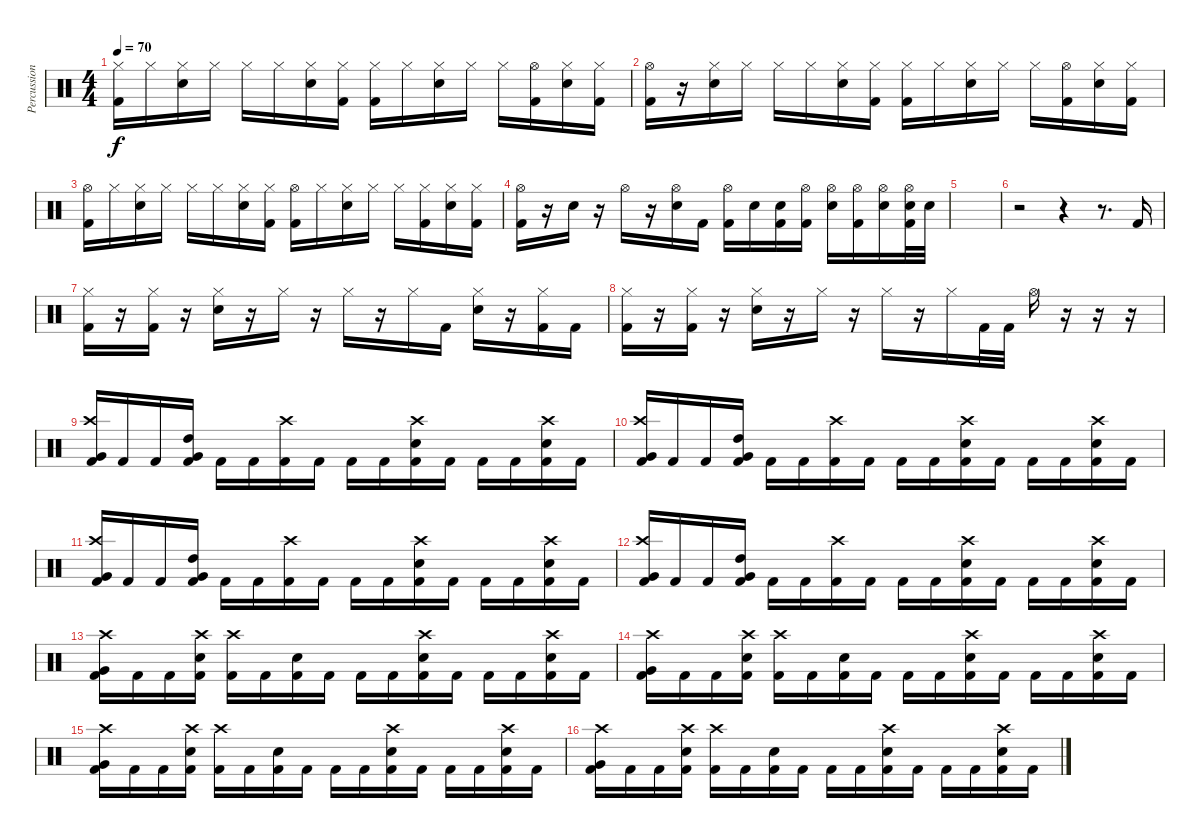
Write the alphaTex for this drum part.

\track ("Percussion" "Percussion") {instrument percussion}
\staff {score}
\articulation defaults
\ts (4 4)
\tempo 70
\clef neutral
\ks c
("Hi-Hat (closed)" "Kick (hit) 2").16{dy f} "Hi-Hat (closed)".16 ("Hi-Hat (closed)" "Snare (hit) 2").16 "Hi-Hat (closed)".16 "Hi-Hat (closed)".16 "Hi-Hat (closed)".16 ("Hi-Hat (closed)" "Snare (hit) 2").16 ("Hi-Hat (closed)" "Kick (hit) 2").16 ("Hi-Hat (closed)" "Kick (hit) 2").16 "Hi-Hat (closed)".16 ("Hi-Hat (closed)" "Snare (hit) 2").16 "Hi-Hat (closed)".16 "Hi-Hat (closed)".16 ("Hi-Hat (open)" "Kick (hit) 2").16 ("Hi-Hat (closed)" "Snare (hit) 2").16 ("Hi-Hat (closed)" "Kick (hit) 2").16 |
("Hi-Hat (open)" "Kick (hit) 2").16 r.16 ("Hi-Hat (closed)" "Snare (hit) 2").16 "Hi-Hat (closed)".16 "Hi-Hat (closed)".16 "Hi-Hat (closed)".16 ("Hi-Hat (closed)" "Snare (hit) 2").16 ("Hi-Hat (closed)" "Kick (hit) 2").16 ("Hi-Hat (closed)" "Kick (hit) 2").16 "Hi-Hat (closed)".16 ("Hi-Hat (closed)" "Snare (hit) 2").16 "Hi-Hat (closed)".16 "Hi-Hat (closed)".16 ("Hi-Hat (open)" "Kick (hit) 2").16 ("Hi-Hat (closed)" "Snare (hit) 2").16 ("Hi-Hat (closed)" "Kick (hit) 2").16 |
("Hi-Hat (open)" "Kick (hit) 2").16 "Hi-Hat (closed)".16 ("Hi-Hat (closed)" "Snare (hit) 2").16 "Hi-Hat (closed)".16 "Hi-Hat (closed)".16 "Hi-Hat (closed)".16 ("Hi-Hat (closed)" "Snare (hit) 2").16 ("Hi-Hat (closed)" "Kick (hit) 2").16 ("Hi-Hat (open)" "Kick (hit) 2").16 "Hi-Hat (closed)".16 ("Hi-Hat (closed)" "Snare (hit) 2").16 "Hi-Hat (closed)".16 "Hi-Hat (closed)".16 ("Hi-Hat (closed)" "Kick (hit) 2").16 ("Hi-Hat (closed)" "Snare (hit) 2").16 ("Hi-Hat (closed)" "Kick (hit) 2").16 |
("Hi-Hat (open)" "Kick (hit) 2").16 r.16 "Snare (hit) 2".16 r.16 "Hi-Hat (open)".16 r.16 ("Hi-Hat (open)" "Snare (hit) 2").16 "Kick (hit) 2".16 ("Hi-Hat (open)" "Kick (hit) 2").16 "Snare (hit) 2".16 ("Snare (hit)" "Kick (hit) 2").16 ("Hi-Hat (open)" "Kick (hit) 2").16 ("Hi-Hat (open)" "Snare (hit) 2").16 ("Hi-Hat (open)" "Kick (hit) 2").16 ("Hi-Hat (open)" "Snare (hit) 2").16 ("Hi-Hat (open)" "Snare (hit) 2" "Kick (hit) 2").32 "Snare (hit) 2".32 |
|
r.2 r.4 r.8{d} "Kick (hit) 2".16 |
("Hi-Hat (closed)" "Kick (hit) 2").16 r.16 ("Hi-Hat (closed)" "Kick (hit) 2").16 r.16 ("Hi-Hat (closed)" "Snare (hit) 2").16 r.16 "Hi-Hat (closed)".16 r.16 "Hi-Hat (closed)".16 r.16 "Hi-Hat (closed)".16 "Kick (hit) 2".16 ("Hi-Hat (closed)" "Snare (hit) 2").16 r.16 ("Hi-Hat (closed)" "Kick (hit) 2").16 "Kick (hit) 2".16 |
("Hi-Hat (closed)" "Kick (hit) 2").16 r.16 ("Hi-Hat (closed)" "Kick (hit) 2").16 r.16 ("Hi-Hat (closed)" "Snare (hit) 2").16 r.16 "Hi-Hat (closed)".16 r.16 "Hi-Hat (closed)".16 r.16 "Hi-Hat (closed)".16 "Kick (hit) 2".32 "Kick (hit) 2".32 "Hi-Hat (open)".16 r.16 r.16 r.16 |
("Crash high (hit)" "Very Low Tom (hit)" "Kick (hit) 2").16 "Kick (hit) 2".16 "Kick (hit) 2".16 ("High Tom (hit)" "Very Low Tom (hit)" "Kick (hit) 2").16 "Kick (hit) 2".16 "Kick (hit) 2".16 ("Crash high (hit)" "Kick (hit) 2").16 "Kick (hit) 2".16 "Kick (hit) 2".16 "Kick (hit) 2".16 ("Crash high (hit)" "Snare (hit) 2" "Kick (hit) 2").16 "Kick (hit) 2".16 "Kick (hit) 2".16 "Kick (hit) 2".16 ("Crash high (hit)" "Snare (hit) 2" "Kick (hit) 2").16 "Kick (hit) 2".16 |
("Crash high (hit)" "Very Low Tom (hit)" "Kick (hit) 2").16 "Kick (hit) 2".16 "Kick (hit) 2".16 ("High Tom (hit)" "Very Low Tom (hit)" "Kick (hit) 2").16 "Kick (hit) 2".16 "Kick (hit) 2".16 ("Crash high (hit)" "Kick (hit) 2").16 "Kick (hit) 2".16 "Kick (hit) 2".16 "Kick (hit) 2".16 ("Crash high (hit)" "Snare (hit) 2" "Kick (hit) 2").16 "Kick (hit) 2".16 "Kick (hit) 2".16 "Kick (hit) 2".16 ("Crash high (hit)" "Snare (hit) 2" "Kick (hit) 2").16 "Kick (hit) 2".16 |
("Crash high (hit)" "Very Low Tom (hit)" "Kick (hit) 2").16 "Kick (hit) 2".16 "Kick (hit) 2".16 ("High Tom (hit)" "Very Low Tom (hit)" "Kick (hit) 2").16 "Kick (hit) 2".16 "Kick (hit) 2".16 ("Crash high (hit)" "Kick (hit) 2").16 "Kick (hit) 2".16 "Kick (hit) 2".16 "Kick (hit) 2".16 ("Crash high (hit)" "Snare (hit) 2" "Kick (hit) 2").16 "Kick (hit) 2".16 "Kick (hit) 2".16 "Kick (hit) 2".16 ("Crash high (hit)" "Snare (hit) 2" "Kick (hit) 2").16 "Kick (hit) 2".16 |
("Crash high (hit)" "Very Low Tom (hit)" "Kick (hit) 2").16 "Kick (hit) 2".16 "Kick (hit) 2".16 ("High Tom (hit)" "Very Low Tom (hit)" "Kick (hit) 2").16 "Kick (hit) 2".16 "Kick (hit) 2".16 ("Crash high (hit)" "Kick (hit) 2").16 "Kick (hit) 2".16 "Kick (hit) 2".16 "Kick (hit) 2".16 ("Crash high (hit)" "Snare (hit) 2" "Kick (hit) 2").16 "Kick (hit) 2".16 "Kick (hit) 2".16 "Kick (hit) 2".16 ("Crash high (hit)" "Snare (hit) 2" "Kick (hit) 2").16 "Kick (hit) 2".16 |
("Crash high (hit)" "Very Low Tom (hit)" "Kick (hit) 2").16 "Kick (hit) 2".16 "Kick (hit) 2".16 ("Crash high (hit)" "Snare (hit) 2" "Kick (hit) 2").16 ("Crash high (hit)" "Kick (hit) 2").16 "Kick (hit) 2".16 ("Snare (hit) 2" "Kick (hit) 2").16 "Kick (hit) 2".16 "Kick (hit) 2".16 "Kick (hit) 2".16 ("Crash high (hit)" "Snare (hit) 2" "Kick (hit) 2").16 "Kick (hit) 2".16 "Kick (hit) 2".16 "Kick (hit) 2".16 ("Crash high (hit)" "Snare (hit) 2" "Kick (hit) 2").16 "Kick (hit) 2".16 |
("Crash high (hit)" "Very Low Tom (hit)" "Kick (hit) 2").16 "Kick (hit) 2".16 "Kick (hit) 2".16 ("Crash high (hit)" "Snare (hit) 2" "Kick (hit) 2").16 ("Crash high (hit)" "Kick (hit) 2").16 "Kick (hit) 2".16 ("Snare (hit) 2" "Kick (hit) 2").16 "Kick (hit) 2".16 "Kick (hit) 2".16 "Kick (hit) 2".16 ("Crash high (hit)" "Snare (hit) 2" "Kick (hit) 2").16 "Kick (hit) 2".16 "Kick (hit) 2".16 "Kick (hit) 2".16 ("Crash high (hit)" "Snare (hit) 2" "Kick (hit) 2").16 "Kick (hit) 2".16 |
("Crash high (hit)" "Very Low Tom (hit)" "Kick (hit) 2").16 "Kick (hit) 2".16 "Kick (hit) 2".16 ("Crash high (hit)" "Snare (hit) 2" "Kick (hit) 2").16 ("Crash high (hit)" "Kick (hit) 2").16 "Kick (hit) 2".16 ("Snare (hit) 2" "Kick (hit) 2").16 "Kick (hit) 2".16 "Kick (hit) 2".16 "Kick (hit) 2".16 ("Crash high (hit)" "Snare (hit) 2" "Kick (hit) 2").16 "Kick (hit) 2".16 "Kick (hit) 2".16 "Kick (hit) 2".16 ("Crash high (hit)" "Snare (hit) 2" "Kick (hit) 2").16 "Kick (hit) 2".16 |
("Crash high (hit)" "Very Low Tom (hit)" "Kick (hit) 2").16 "Kick (hit) 2".16 "Kick (hit) 2".16 ("Crash high (hit)" "Snare (hit) 2" "Kick (hit) 2").16 ("Crash high (hit)" "Kick (hit) 2").16 "Kick (hit) 2".16 ("Snare (hit) 2" "Kick (hit) 2").16 "Kick (hit) 2".16 "Kick (hit) 2".16 "Kick (hit) 2".16 ("Crash high (hit)" "Snare (hit) 2" "Kick (hit) 2").16 "Kick (hit) 2".16 "Kick (hit) 2".16 "Kick (hit) 2".16 ("Crash high (hit)" "Snare (hit) 2" "Kick (hit) 2").16 "Kick (hit) 2".16
